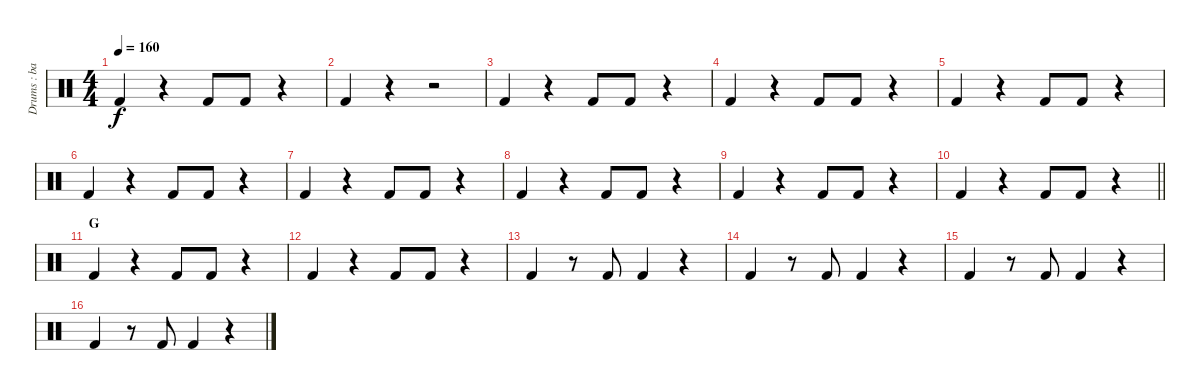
\track ("Drums : bass drums" "Drums : ba") {instrument percussion}
\staff {score}
\articulation defaults
\ts (4 4)
\tempo 160
\clef neutral
\ks c "Kick (hit) 2".4{dy f}
r.4 "Kick (hit) 2".8 "Kick (hit) 2".8 r.4 |
"Kick (hit) 2".4 r.4 r.2 |
"Kick (hit) 2".4 r.4 "Kick (hit) 2".8 "Kick (hit) 2".8 r.4 |
"Kick (hit) 2".4 r.4 "Kick (hit) 2".8 "Kick (hit) 2".8 r.4 |
"Kick (hit) 2".4 r.4 "Kick (hit) 2".8 "Kick (hit) 2".8 r.4 |
"Kick (hit) 2".4 r.4 "Kick (hit) 2".8 "Kick (hit) 2".8 r.4 |
"Kick (hit) 2".4 r.4 "Kick (hit) 2".8 "Kick (hit) 2".8 r.4 |
"Kick (hit) 2".4 r.4 "Kick (hit) 2".8 "Kick (hit) 2".8 r.4 |
"Kick (hit) 2".4 r.4 "Kick (hit) 2".8 "Kick (hit) 2".8 r.4 |
\barLineRight lightlight "Kick (hit) 2".4
r.4 "Kick (hit) 2".8 "Kick (hit) 2".8 r.4 |
\section ("" "G")
"Kick (hit) 2".4 r.4 "Kick (hit) 2".8 "Kick (hit) 2".8 r.4 |
"Kick (hit) 2".4 r.4 "Kick (hit) 2".8 "Kick (hit) 2".8 r.4 |
"Kick (hit) 2".4 r.8 "Kick (hit) 2".8 "Kick (hit) 2".4 r.4 |
"Kick (hit) 2".4 r.8 "Kick (hit) 2".8 "Kick (hit) 2".4 r.4 |
"Kick (hit) 2".4 r.8 "Kick (hit) 2".8 "Kick (hit) 2".4 r.4 |
"Kick (hit) 2".4 r.8 "Kick (hit) 2".8 "Kick (hit) 2".4 r.4
